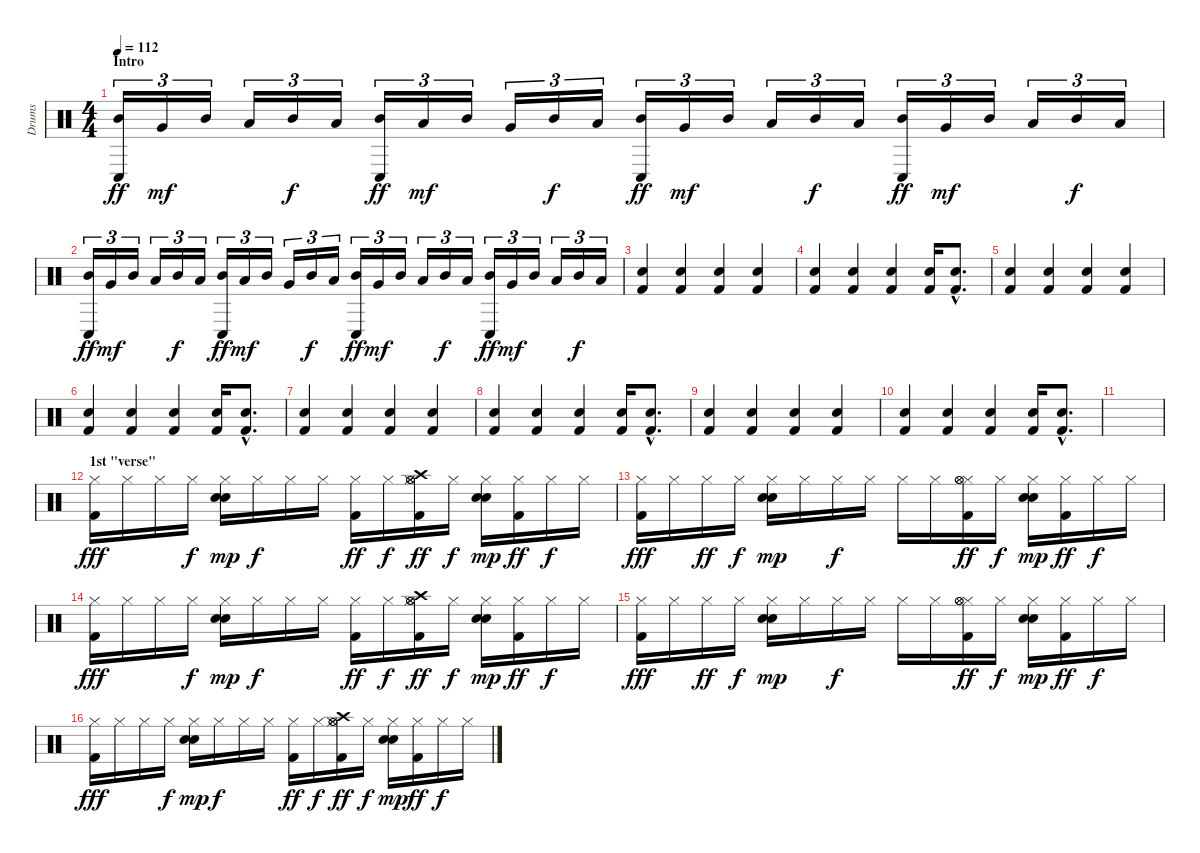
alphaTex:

\track ("Drums" "Drums") {instrument percussion}
\staff {score}
\articulation defaults
\ts (4 4)
\section ("" "Intro")
\tempo 112
\clef neutral
\ks c
("Conga low (hit)" "Mid Tom (hit)").16{tu (3 2) dy ff} "Very Low Tom (hit)".16{tu (3 2) dy mf} "Mid Tom (hit)".16{tu (3 2)} "Low Tom (hit)".16{tu (3 2)} "Mid Tom (hit)".16{tu (3 2) dy f} "Low Floor Tom (hit)".16{tu (3 2)} ("Mid Tom (hit)" "Conga low (hit)").16{tu (3 2) dy ff} "Low Tom (hit)".16{tu (3 2) dy mf} "Mid Tom (hit)".16{tu (3 2)} "Very Low Tom (hit)".16{tu (3 2)} "Mid Tom (hit)".16{tu (3 2) dy f} "Low Floor Tom (hit)".16{tu (3 2)} ("Mid Tom (hit)" "Conga low (hit)").16{tu (3 2) dy ff} "Very Low Tom (hit)".16{tu (3 2) dy mf} "Mid Tom (hit)".16{tu (3 2)} "Low Tom (hit)".16{tu (3 2)} "Mid Tom (hit)".16{tu (3 2) dy f} "Low Floor Tom (hit)".16{tu (3 2)} ("Mid Tom (hit)" "Conga low (hit)").16{tu (3 2) dy ff} "Very Low Tom (hit)".16{tu (3 2) dy mf} "Mid Tom (hit)".16{tu (3 2)} "Low Tom (hit)".16{tu (3 2)} "Mid Tom (hit)".16{tu (3 2) dy f} "Low Floor Tom (hit)".16{tu (3 2)} |
("Conga low (hit)" "Mid Tom (hit)").16{tu (3 2) dy ff} "Very Low Tom (hit)".16{tu (3 2) dy mf} "Mid Tom (hit)".16{tu (3 2)} "Low Tom (hit)".16{tu (3 2)} "Mid Tom (hit)".16{tu (3 2) dy f} "Low Floor Tom (hit)".16{tu (3 2)} ("Mid Tom (hit)" "Conga low (hit)").16{tu (3 2) dy ff} "Low Tom (hit)".16{tu (3 2) dy mf} "Mid Tom (hit)".16{tu (3 2)} "Very Low Tom (hit)".16{tu (3 2)} "Mid Tom (hit)".16{tu (3 2) dy f} "Low Floor Tom (hit)".16{tu (3 2)} ("Mid Tom (hit)" "Conga low (hit)").16{tu (3 2) dy ff} "Very Low Tom (hit)".16{tu (3 2) dy mf} "Mid Tom (hit)".16{tu (3 2)} "Low Tom (hit)".16{tu (3 2)} "Mid Tom (hit)".16{tu (3 2) dy f} "Low Floor Tom (hit)".16{tu (3 2)} ("Mid Tom (hit)" "Conga low (hit)").16{tu (3 2) dy ff} "Very Low Tom (hit)".16{tu (3 2) dy mf} "Mid Tom (hit)".16{tu (3 2)} "Low Tom (hit)".16{tu (3 2)} "Mid Tom (hit)".16{tu (3 2) dy f} "Low Floor Tom (hit)".16{tu (3 2)} |
("Kick (hit) 2" "Snare (hit) 2").4 ("Kick (hit) 2" "Snare (hit) 2").4 ("Kick (hit) 2" "Snare (hit) 2").4 ("Kick (hit) 2" "Snare (hit) 2").4 |
("Kick (hit) 2" "Snare (hit) 2").4 ("Kick (hit) 2" "Snare (hit) 2").4 ("Kick (hit) 2" "Snare (hit) 2").4 ("Kick (hit) 2" "Snare (hit) 2").16 ("Kick (hit) 2"{hac} "Snare (hit) 2"{hac}).8{d} |
("Kick (hit) 2" "Snare (hit) 2").4 ("Kick (hit) 2" "Snare (hit) 2").4 ("Kick (hit) 2" "Snare (hit) 2").4 ("Kick (hit) 2" "Snare (hit) 2").4 |
("Kick (hit) 2" "Snare (hit) 2").4 ("Kick (hit) 2" "Snare (hit) 2").4 ("Kick (hit) 2" "Snare (hit) 2").4 ("Kick (hit) 2" "Snare (hit) 2").16 ("Kick (hit) 2"{hac} "Snare (hit) 2"{hac}).8{d} |
("Kick (hit) 2" "Snare (hit) 2").4 ("Kick (hit) 2" "Snare (hit) 2").4 ("Kick (hit) 2" "Snare (hit) 2").4 ("Kick (hit) 2" "Snare (hit) 2").4 |
("Kick (hit) 2" "Snare (hit) 2").4 ("Kick (hit) 2" "Snare (hit) 2").4 ("Kick (hit) 2" "Snare (hit) 2").4 ("Kick (hit) 2" "Snare (hit) 2").16 ("Kick (hit) 2"{hac} "Snare (hit) 2"{hac}).8{d} |
("Kick (hit) 2" "Snare (hit) 2").4 ("Kick (hit) 2" "Snare (hit) 2").4 ("Kick (hit) 2" "Snare (hit) 2").4 ("Kick (hit) 2" "Snare (hit) 2").4 |
("Kick (hit) 2" "Snare (hit) 2").4 ("Kick (hit) 2" "Snare (hit) 2").4 ("Kick (hit) 2" "Snare (hit) 2").4 ("Kick (hit) 2" "Snare (hit) 2").16 ("Kick (hit) 2"{hac} "Snare (hit) 2"{hac}).8{d} |
|
\section ("" "1st \"verse\"")
("Kick (hit) 2" "Hi-Hat (closed)").16{dy fff} "Hi-Hat (closed)".16 "Hi-Hat (closed)".16 "Hi-Hat (closed)".16{dy f} ("Snare (hit) 2" "Hi-Hat (closed)" "Hand Clap (hit)").16{dy mp} "Hi-Hat (closed)".16{dy f} "Hi-Hat (closed)".16 "Hi-Hat (closed)".16 ("Kick (hit) 2" "Hi-Hat (closed)").16{dy ff} "Hi-Hat (closed)".16{dy f} ("Kick (hit) 2" "Crash high (hit)" "Hi-Hat (closed)" "Hi-Hat (open)" "Hi-Hat (open)").16{dy ff} "Hi-Hat (closed)".16{dy f} ("Snare (hit) 2" "Hi-Hat (closed)" "Hand Clap (hit)").16{dy mp} ("Kick (hit) 2" "Hi-Hat (closed)").16{dy ff} "Hi-Hat (closed)".16{dy f} "Hi-Hat (closed)".16 |
("Kick (hit) 2" "Hi-Hat (closed)").16{dy fff} "Hi-Hat (closed)".16 "Hi-Hat (closed)".16{dy ff} "Hi-Hat (closed)".16{dy f} ("Snare (hit) 2" "Hi-Hat (closed)" "Hand Clap (hit)").16{dy mp} "Hi-Hat (closed)".16 "Hi-Hat (closed)".16{dy f} "Hi-Hat (closed)".16 "Hi-Hat (closed)".16 "Hi-Hat (closed)".16 ("Kick (hit) 2" "Hi-Hat (closed)" "Hi-Hat (open)" "Hi-Hat (open)").16{dy ff} "Hi-Hat (closed)".16{dy f} ("Snare (hit) 2" "Hi-Hat (closed)" "Hand Clap (hit)").16{dy mp} ("Kick (hit) 2" "Hi-Hat (closed)").16{dy ff} "Hi-Hat (closed)".16{dy f} "Hi-Hat (closed)".16 |
("Kick (hit) 2" "Hi-Hat (closed)").16{dy fff} "Hi-Hat (closed)".16 "Hi-Hat (closed)".16 "Hi-Hat (closed)".16{dy f} ("Snare (hit) 2" "Hi-Hat (closed)" "Hand Clap (hit)").16{dy mp} "Hi-Hat (closed)".16{dy f} "Hi-Hat (closed)".16 "Hi-Hat (closed)".16 ("Kick (hit) 2" "Hi-Hat (closed)").16{dy ff} "Hi-Hat (closed)".16{dy f} ("Kick (hit) 2" "Crash high (hit)" "Hi-Hat (closed)" "Hi-Hat (open)" "Hi-Hat (open)").16{dy ff} "Hi-Hat (closed)".16{dy f} ("Snare (hit) 2" "Hi-Hat (closed)" "Hand Clap (hit)").16{dy mp} ("Kick (hit) 2" "Hi-Hat (closed)").16{dy ff} "Hi-Hat (closed)".16{dy f} "Hi-Hat (closed)".16 |
("Kick (hit) 2" "Hi-Hat (closed)").16{dy fff} "Hi-Hat (closed)".16 "Hi-Hat (closed)".16{dy ff} "Hi-Hat (closed)".16{dy f} ("Snare (hit) 2" "Hi-Hat (closed)" "Hand Clap (hit)").16{dy mp} "Hi-Hat (closed)".16 "Hi-Hat (closed)".16{dy f} "Hi-Hat (closed)".16 "Hi-Hat (closed)".16 "Hi-Hat (closed)".16 ("Kick (hit) 2" "Hi-Hat (closed)" "Hi-Hat (open)" "Hi-Hat (open)").16{dy ff} "Hi-Hat (closed)".16{dy f} ("Snare (hit) 2" "Hi-Hat (closed)" "Hand Clap (hit)").16{dy mp} ("Kick (hit) 2" "Hi-Hat (closed)").16{dy ff} "Hi-Hat (closed)".16{dy f} "Hi-Hat (closed)".16 |
("Kick (hit) 2" "Hi-Hat (closed)").16{dy fff} "Hi-Hat (closed)".16 "Hi-Hat (closed)".16 "Hi-Hat (closed)".16{dy f} ("Snare (hit) 2" "Hi-Hat (closed)" "Hand Clap (hit)").16{dy mp} "Hi-Hat (closed)".16{dy f} "Hi-Hat (closed)".16 "Hi-Hat (closed)".16 ("Kick (hit) 2" "Hi-Hat (closed)").16{dy ff} "Hi-Hat (closed)".16{dy f} ("Kick (hit) 2" "Crash high (hit)" "Hi-Hat (closed)" "Hi-Hat (open)" "Hi-Hat (open)").16{dy ff} "Hi-Hat (closed)".16{dy f} ("Snare (hit) 2" "Hi-Hat (closed)" "Hand Clap (hit)").16{dy mp} ("Kick (hit) 2" "Hi-Hat (closed)").16{dy ff} "Hi-Hat (closed)".16{dy f} "Hi-Hat (closed)".16
